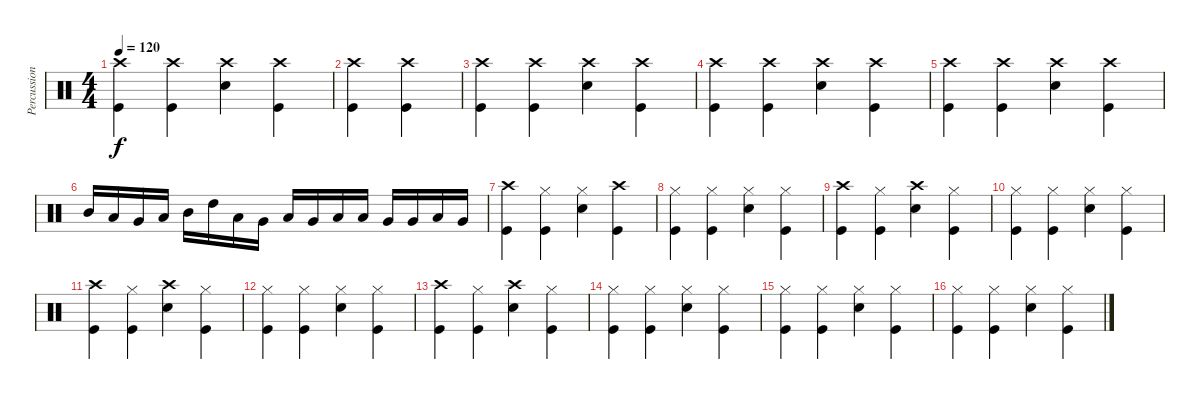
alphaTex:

\track ("Percussion" "Percussion") {instrument percussion}
\staff {score}
\articulation defaults
\ts (4 4)
\tempo 120
\clef neutral
\ks c
("Crash high (hit)" "Kick (hit)").4{dy f} ("Crash high (hit)" "Kick (hit)").4 ("Crash high (hit)" "Snare (hit) 2").4 ("Crash high (hit)" "Kick (hit)").4 |
("Crash high (hit)" "Kick (hit)").4 ("Crash high (hit)" "Kick (hit)").4 |
("Crash high (hit)" "Kick (hit)").4 ("Crash high (hit)" "Kick (hit)").4 ("Crash high (hit)" "Snare (hit) 2").4 ("Crash high (hit)" "Kick (hit)").4 |
("Crash high (hit)" "Kick (hit)").4 ("Crash high (hit)" "Kick (hit)").4 ("Crash high (hit)" "Snare (hit) 2").4 ("Crash high (hit)" "Kick (hit)").4 |
("Crash high (hit)" "Kick (hit)").4 ("Crash high (hit)" "Kick (hit)").4 ("Crash high (hit)" "Snare (hit) 2").4 ("Crash high (hit)" "Kick (hit)").4 |
"Mid Tom (hit)".16 "Low Tom (hit)".16 "Very Low Tom (hit)".16 "Low Floor Tom (hit)".16 "Mid Tom (hit)".16 "High Tom (hit)".16 "Low Tom (hit)".16 "Very Low Tom (hit)".16 "Low Floor Tom (hit)".16 "Very Low Tom (hit)".16 "Low Floor Tom (hit)".16 "Low Tom (hit)".16 "Very Low Tom (hit)".16 "Very Low Tom (hit)".16 "Low Tom (hit)".16 "Very Low Tom (hit)".16 |
("Crash high (hit)" "Kick (hit)").4 ("Hi-Hat (closed)" "Kick (hit)").4 ("Hi-Hat (closed)" "Snare (hit) 2").4 ("Crash high (hit)" "Kick (hit)").4 |
("Hi-Hat (closed)" "Kick (hit)").4 ("Hi-Hat (closed)" "Kick (hit)").4 ("Hi-Hat (closed)" "Snare (hit) 2").4 ("Hi-Hat (closed)" "Kick (hit)").4 |
("Crash high (hit)" "Kick (hit)").4 ("Hi-Hat (closed)" "Kick (hit)").4 ("Crash high (hit)" "Snare (hit) 2").4 ("Hi-Hat (closed)" "Kick (hit)").4 |
("Hi-Hat (closed)" "Kick (hit)").4 ("Hi-Hat (closed)" "Kick (hit)").4 ("Hi-Hat (closed)" "Snare (hit) 2").4 ("Hi-Hat (closed)" "Kick (hit)").4 |
("Crash high (hit)" "Kick (hit)").4 ("Hi-Hat (closed)" "Kick (hit)").4 ("Crash high (hit)" "Snare (hit) 2").4 ("Hi-Hat (closed)" "Kick (hit)").4 |
("Hi-Hat (closed)" "Kick (hit)").4 ("Hi-Hat (closed)" "Kick (hit)").4 ("Hi-Hat (closed)" "Snare (hit) 2").4 ("Hi-Hat (closed)" "Kick (hit)").4 |
("Crash high (hit)" "Kick (hit)").4 ("Hi-Hat (closed)" "Kick (hit)").4 ("Crash high (hit)" "Snare (hit) 2").4 ("Hi-Hat (closed)" "Kick (hit)").4 |
("Hi-Hat (closed)" "Kick (hit)").4 ("Hi-Hat (closed)" "Kick (hit)").4 ("Hi-Hat (closed)" "Snare (hit) 2").4 ("Hi-Hat (closed)" "Kick (hit)").4 |
("Hi-Hat (closed)" "Kick (hit)").4 ("Hi-Hat (closed)" "Kick (hit)").4 ("Hi-Hat (closed)" "Snare (hit) 2").4 ("Hi-Hat (closed)" "Kick (hit)").4 |
("Hi-Hat (closed)" "Kick (hit)").4 ("Hi-Hat (closed)" "Kick (hit)").4 ("Hi-Hat (closed)" "Snare (hit) 2").4 ("Hi-Hat (closed)" "Kick (hit)").4
